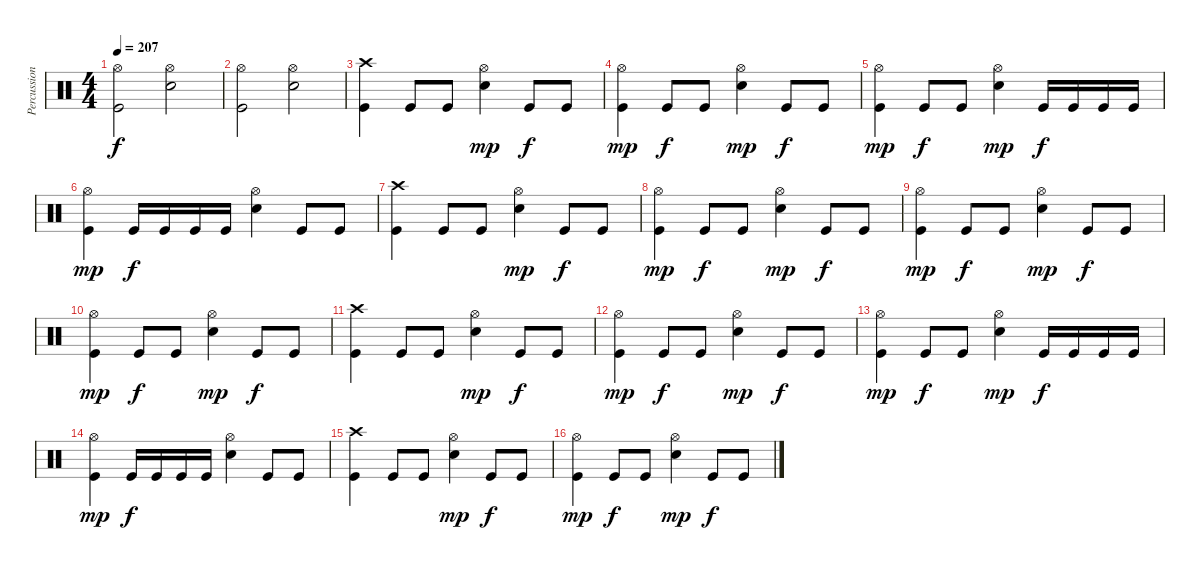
\track ("Percussion" "Percussion") {instrument percussion}
\staff {score}
\articulation defaults
\ts (4 4)
\tempo 207
\clef neutral
\ks c
("Hi-Hat (open)" "Kick (hit)").2{dy f} ("Hi-Hat (open)" "Electric Snare (hit)").2 |
("Hi-Hat (open)" "Kick (hit)").2 ("Hi-Hat (open)" "Electric Snare (hit)").2 |
("Crash high (hit)" "Kick (hit)").4 "Kick (hit)".8 "Kick (hit)".8 ("Hi-Hat (open)" "Electric Snare (hit)").4{dy mp} "Kick (hit)".8{dy f} "Kick (hit)".8 |
("Hi-Hat (open)" "Kick (hit)").4{dy mp} "Kick (hit)".8{dy f} "Kick (hit)".8 ("Hi-Hat (open)" "Electric Snare (hit)").4{dy mp} "Kick (hit)".8{dy f} "Kick (hit)".8 |
("Hi-Hat (open)" "Kick (hit)").4{dy mp} "Kick (hit)".8{dy f} "Kick (hit)".8 ("Hi-Hat (open)" "Electric Snare (hit)").4{dy mp} "Kick (hit)".16{dy f} "Kick (hit)".16 "Kick (hit)".16 "Kick (hit)".16 |
("Hi-Hat (open)" "Kick (hit)").4{dy mp} "Kick (hit)".16{dy f} "Kick (hit)".16 "Kick (hit)".16 "Kick (hit)".16 ("Hi-Hat (open)" "Electric Snare (hit)").4 "Kick (hit)".8 "Kick (hit)".8 |
("Crash high (hit)" "Kick (hit)").4 "Kick (hit)".8 "Kick (hit)".8 ("Hi-Hat (open)" "Electric Snare (hit)").4{dy mp} "Kick (hit)".8{dy f} "Kick (hit)".8 |
("Hi-Hat (open)" "Kick (hit)").4{dy mp} "Kick (hit)".8{dy f} "Kick (hit)".8 ("Hi-Hat (open)" "Electric Snare (hit)").4{dy mp} "Kick (hit)".8{dy f} "Kick (hit)".8 |
("Hi-Hat (open)" "Kick (hit)").4{dy mp} "Kick (hit)".8{dy f} "Kick (hit)".8 ("Hi-Hat (open)" "Electric Snare (hit)").4{dy mp} "Kick (hit)".8{dy f} "Kick (hit)".8 |
("Hi-Hat (open)" "Kick (hit)").4{dy mp} "Kick (hit)".8{dy f} "Kick (hit)".8 ("Hi-Hat (open)" "Electric Snare (hit)").4{dy mp} "Kick (hit)".8{dy f} "Kick (hit)".8 |
("Crash high (hit)" "Kick (hit)").4 "Kick (hit)".8 "Kick (hit)".8 ("Hi-Hat (open)" "Electric Snare (hit)").4{dy mp} "Kick (hit)".8{dy f} "Kick (hit)".8 |
("Hi-Hat (open)" "Kick (hit)").4{dy mp} "Kick (hit)".8{dy f} "Kick (hit)".8 ("Hi-Hat (open)" "Electric Snare (hit)").4{dy mp} "Kick (hit)".8{dy f} "Kick (hit)".8 |
("Hi-Hat (open)" "Kick (hit)").4{dy mp} "Kick (hit)".8{dy f} "Kick (hit)".8 ("Hi-Hat (open)" "Electric Snare (hit)").4{dy mp} "Kick (hit)".16{dy f} "Kick (hit)".16 "Kick (hit)".16 "Kick (hit)".16 |
("Hi-Hat (open)" "Kick (hit)").4{dy mp} "Kick (hit)".16{dy f} "Kick (hit)".16 "Kick (hit)".16 "Kick (hit)".16 ("Hi-Hat (open)" "Electric Snare (hit)").4 "Kick (hit)".8 "Kick (hit)".8 |
("Crash high (hit)" "Kick (hit)").4 "Kick (hit)".8 "Kick (hit)".8 ("Hi-Hat (open)" "Electric Snare (hit)").4{dy mp} "Kick (hit)".8{dy f} "Kick (hit)".8 |
("Hi-Hat (open)" "Kick (hit)").4{dy mp} "Kick (hit)".8{dy f} "Kick (hit)".8 ("Hi-Hat (open)" "Electric Snare (hit)").4{dy mp} "Kick (hit)".8{dy f} "Kick (hit)".8
